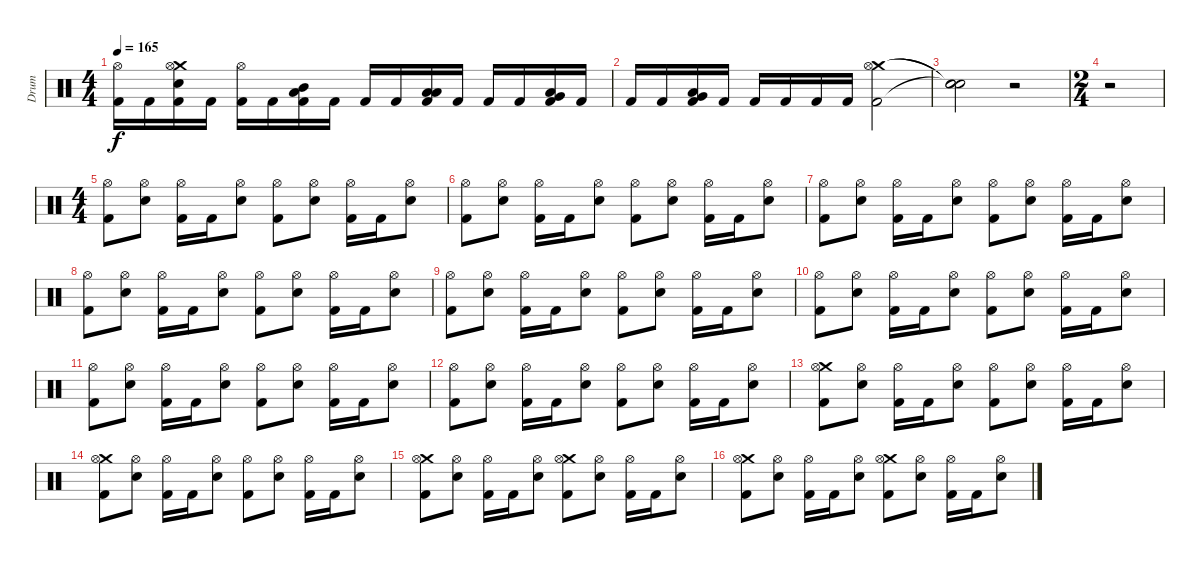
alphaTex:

\track ("Drum" "Drum") {instrument percussion}
\staff {score}
\articulation defaults
\ts (4 4)
\tempo 165
\clef neutral
\ks c
("Hi-Hat (open)" "Kick (hit) 2").16{dy f} "Kick (hit) 2".16 ("Crash medium (hit)" "Electric Snare (hit)" "Hi-Hat (open)" "Kick (hit) 2").16 "Kick (hit) 2".16 ("Hi-Hat (open)" "Kick (hit) 2").16 "Kick (hit) 2".16 ("Mid Tom (hit)" "Low Floor Tom (hit)" "Kick (hit) 2").16 "Kick (hit) 2".16 "Kick (hit) 2".16 "Kick (hit) 2".16 ("Low Tom (hit)" "Low Floor Tom (hit)" "Kick (hit) 2").16 "Kick (hit) 2".16 "Kick (hit) 2".16 "Kick (hit) 2".16 ("Very Low Tom (hit)" "Low Floor Tom (hit)" "Kick (hit) 2").16 "Kick (hit) 2".16 |
"Kick (hit) 2".16 "Kick (hit) 2".16 ("Low Floor Tom (hit)" "Very Low Tom (hit)" "Kick (hit) 2").16 "Kick (hit) 2".16 "Kick (hit) 2".16 "Kick (hit) 2".16 "Kick (hit) 2".16 "Kick (hit) 2".16 ("Crash medium (hit)" "Hi-Hat (open)" "Kick (hit) 2").2 |
("Snare (hit)"{t} "Snare (hit)"{t} "Snare (hit)"{t}).2 r.2 |
\ts (2 4)
r.2 |
\ts (4 4)
("Hi-Hat (open)" "Kick (hit) 2").8 ("Hi-Hat (open)" "Electric Snare (hit)").8 ("Hi-Hat (open)" "Kick (hit) 2").16 "Kick (hit) 2".16 ("Hi-Hat (open)" "Electric Snare (hit)").8 ("Hi-Hat (open)" "Kick (hit) 2").8 ("Hi-Hat (open)" "Electric Snare (hit)").8 ("Hi-Hat (open)" "Kick (hit) 2").16 "Kick (hit) 2".16 ("Hi-Hat (open)" "Electric Snare (hit)").8 |
("Hi-Hat (open)" "Kick (hit) 2").8 ("Hi-Hat (open)" "Electric Snare (hit)").8 ("Hi-Hat (open)" "Kick (hit) 2").16 "Kick (hit) 2".16 ("Hi-Hat (open)" "Electric Snare (hit)").8 ("Hi-Hat (open)" "Kick (hit) 2").8 ("Hi-Hat (open)" "Electric Snare (hit)").8 ("Hi-Hat (open)" "Kick (hit) 2").16 "Kick (hit) 2".16 ("Hi-Hat (open)" "Electric Snare (hit)").8 |
("Hi-Hat (open)" "Kick (hit) 2").8 ("Hi-Hat (open)" "Electric Snare (hit)").8 ("Hi-Hat (open)" "Kick (hit) 2").16 "Kick (hit) 2".16 ("Hi-Hat (open)" "Electric Snare (hit)").8 ("Hi-Hat (open)" "Kick (hit) 2").8 ("Hi-Hat (open)" "Electric Snare (hit)").8 ("Hi-Hat (open)" "Kick (hit) 2").16 "Kick (hit) 2".16 ("Hi-Hat (open)" "Electric Snare (hit)").8 |
("Hi-Hat (open)" "Kick (hit) 2").8 ("Hi-Hat (open)" "Electric Snare (hit)").8 ("Hi-Hat (open)" "Kick (hit) 2").16 "Kick (hit) 2".16 ("Hi-Hat (open)" "Electric Snare (hit)").8 ("Hi-Hat (open)" "Kick (hit) 2").8 ("Hi-Hat (open)" "Electric Snare (hit)").8 ("Hi-Hat (open)" "Kick (hit) 2").16 "Kick (hit) 2".16 ("Hi-Hat (open)" "Electric Snare (hit)").8 |
("Hi-Hat (open)" "Kick (hit) 2").8 ("Hi-Hat (open)" "Electric Snare (hit)").8 ("Hi-Hat (open)" "Kick (hit) 2").16 "Kick (hit) 2".16 ("Hi-Hat (open)" "Electric Snare (hit)").8 ("Hi-Hat (open)" "Kick (hit) 2").8 ("Hi-Hat (open)" "Electric Snare (hit)").8 ("Hi-Hat (open)" "Kick (hit) 2").16 "Kick (hit) 2".16 ("Hi-Hat (open)" "Electric Snare (hit)").8 |
("Hi-Hat (open)" "Kick (hit) 2").8 ("Hi-Hat (open)" "Electric Snare (hit)").8 ("Hi-Hat (open)" "Kick (hit) 2").16 "Kick (hit) 2".16 ("Hi-Hat (open)" "Electric Snare (hit)").8 ("Hi-Hat (open)" "Kick (hit) 2").8 ("Hi-Hat (open)" "Electric Snare (hit)").8 ("Hi-Hat (open)" "Kick (hit) 2").16 "Kick (hit) 2".16 ("Hi-Hat (open)" "Electric Snare (hit)").8 |
("Hi-Hat (open)" "Kick (hit) 2").8 ("Hi-Hat (open)" "Electric Snare (hit)").8 ("Hi-Hat (open)" "Kick (hit) 2").16 "Kick (hit) 2".16 ("Hi-Hat (open)" "Electric Snare (hit)").8 ("Hi-Hat (open)" "Kick (hit) 2").8 ("Hi-Hat (open)" "Electric Snare (hit)").8 ("Hi-Hat (open)" "Kick (hit) 2").16 "Kick (hit) 2".16 ("Hi-Hat (open)" "Electric Snare (hit)").8 |
("Hi-Hat (open)" "Kick (hit) 2").8 ("Hi-Hat (open)" "Electric Snare (hit)").8 ("Hi-Hat (open)" "Kick (hit) 2").16 "Kick (hit) 2".16 ("Hi-Hat (open)" "Electric Snare (hit)").8 ("Hi-Hat (open)" "Kick (hit) 2").8 ("Hi-Hat (open)" "Electric Snare (hit)").8 ("Hi-Hat (open)" "Kick (hit) 2").16 "Kick (hit) 2".16 ("Hi-Hat (open)" "Electric Snare (hit)").8 |
("Crash medium (hit)" "Hi-Hat (open)" "Kick (hit) 2").8 ("Hi-Hat (open)" "Electric Snare (hit)").8 ("Hi-Hat (open)" "Kick (hit) 2").16 "Kick (hit) 2".16 ("Hi-Hat (open)" "Electric Snare (hit)").8 ("Hi-Hat (open)" "Kick (hit) 2").8 ("Hi-Hat (open)" "Electric Snare (hit)").8 ("Hi-Hat (open)" "Kick (hit) 2").16 "Kick (hit) 2".16 ("Hi-Hat (open)" "Electric Snare (hit)").8 |
("Crash medium (hit)" "Hi-Hat (open)" "Kick (hit) 2").8 ("Hi-Hat (open)" "Electric Snare (hit)").8 ("Hi-Hat (open)" "Kick (hit) 2").16 "Kick (hit) 2".16 ("Hi-Hat (open)" "Electric Snare (hit)").8 ("Hi-Hat (open)" "Kick (hit) 2").8 ("Hi-Hat (open)" "Electric Snare (hit)").8 ("Hi-Hat (open)" "Kick (hit) 2").16 "Kick (hit) 2".16 ("Hi-Hat (open)" "Electric Snare (hit)").8 |
("Crash medium (hit)" "Hi-Hat (open)" "Kick (hit) 2").8 ("Hi-Hat (open)" "Electric Snare (hit)").8 ("Hi-Hat (open)" "Kick (hit) 2").16 "Kick (hit) 2".16 ("Hi-Hat (open)" "Electric Snare (hit)").8 ("Crash medium (hit)" "Hi-Hat (open)" "Kick (hit) 2").8 ("Hi-Hat (open)" "Electric Snare (hit)").8 ("Hi-Hat (open)" "Kick (hit) 2").16 "Kick (hit) 2".16 ("Hi-Hat (open)" "Electric Snare (hit)").8 |
("Crash medium (hit)" "Hi-Hat (open)" "Kick (hit) 2").8 ("Hi-Hat (open)" "Electric Snare (hit)").8 ("Hi-Hat (open)" "Kick (hit) 2").16 "Kick (hit) 2".16 ("Hi-Hat (open)" "Electric Snare (hit)").8 ("Crash medium (hit)" "Hi-Hat (open)" "Kick (hit) 2").8 ("Hi-Hat (open)" "Electric Snare (hit)").8 ("Hi-Hat (open)" "Kick (hit) 2").16 "Kick (hit) 2".16 ("Hi-Hat (open)" "Electric Snare (hit)").8
